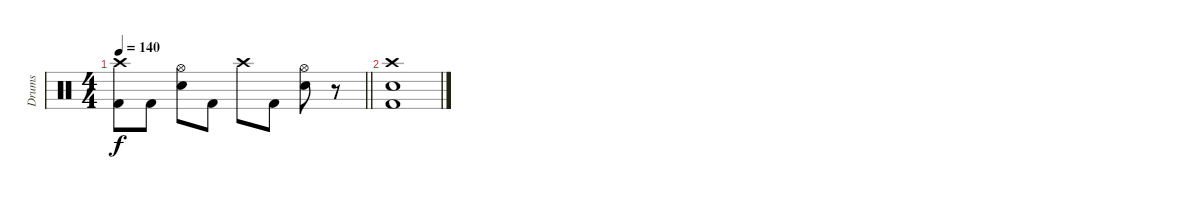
\track ("Drums" "Drums") {instrument percussion bank 127}
\staff {score}
\articulation defaults
\ts (4 4)
\tempo 140
\clef neutral
\barLineRight lightlight
\ks c
("Crash high (hit)" "Kick (hit) 2").8{dy f} "Kick (hit) 2".8 ("Hi-Hat (open)" "Electric Snare (hit)").8 "Kick (hit) 2".8 "Crash high (hit)".8 "Kick (hit) 2".8 ("Hi-Hat (open)" "Electric Snare (hit)").8 r.8 |
("Crash high (hit)" "Electric Snare (hit)" "Kick (hit) 2").1
